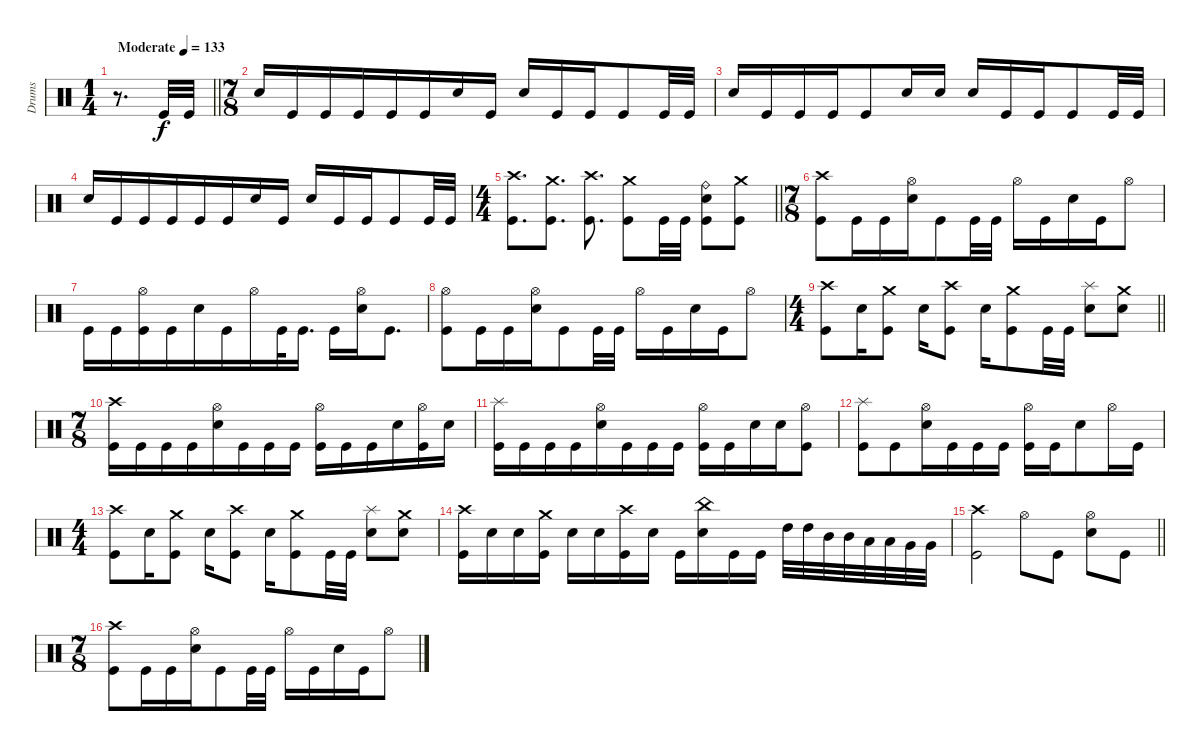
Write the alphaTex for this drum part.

\track ("Drums" "Drums") {instrument percussion}
\staff
\articulation defaults
\ts (1 4)
\tempo (133 "Moderate")
\clef neutral
\barLineRight lightlight
\ks c
r.8{d dy f} "Kick (hit)".32 "Kick (hit)".32 |
\ts (7 8)
"Electric Snare (hit)".16 "Kick (hit)".16 "Kick (hit)".16 "Kick (hit)".16 "Kick (hit)".16 "Kick (hit)".16 "Electric Snare (hit)".16 "Kick (hit)".16 "Electric Snare (hit)".16 "Kick (hit)".16 "Kick (hit)".16 "Kick (hit)".8 "Kick (hit)".32 "Kick (hit)".32 |
"Electric Snare (hit)".16 "Kick (hit)".16 "Kick (hit)".16 "Kick (hit)".16 "Kick (hit)".8 "Electric Snare (hit)".16 "Electric Snare (hit)".16 "Electric Snare (hit)".16 "Kick (hit)".16 "Kick (hit)".16 "Kick (hit)".8 "Kick (hit)".32 "Kick (hit)".32 |
"Electric Snare (hit)".16 "Kick (hit)".16 "Kick (hit)".16 "Kick (hit)".16 "Kick (hit)".16 "Kick (hit)".16 "Electric Snare (hit)".16 "Kick (hit)".16 "Electric Snare (hit)".16 "Kick (hit)".16 "Kick (hit)".16 "Kick (hit)".8 "Kick (hit)".32 "Kick (hit)".32 |
\ts (4 4)
\barLineRight lightlight
("Crash high (hit)" "Kick (hit)").8{d} ("Crash medium (hit)" "Kick (hit)").8{d} ("Crash high (hit)" "Kick (hit)").8{d} ("Crash medium (hit)" "Kick (hit)").8 "Kick (hit)".32 "Kick (hit)".32 ("Ride (bell)" "Electric Snare (hit)" "Kick (hit)").8 ("Crash medium (hit)" "Kick (hit)").8 |
\ts (7 8)
("Crash high (hit)" "Kick (hit)").8 "Kick (hit)".16 "Kick (hit)".16 ("Hi-Hat (open)" "Electric Snare (hit)").16 "Kick (hit)".8 "Kick (hit)".32 "Kick (hit)".32 "Hi-Hat (open)".16 "Kick (hit)".16 "Electric Snare (hit)".16 "Kick (hit)".16 "Hi-Hat (open)".8 |
"Kick (hit)".16 "Kick (hit)".16 ("Hi-Hat (open)" "Kick (hit)").16 "Kick (hit)".16 "Electric Snare (hit)".16 "Kick (hit)".16 "Hi-Hat (open)".16 "Kick (hit)".32 "Kick (hit)".16{d} "Kick (hit)".16 ("Hi-Hat (open)" "Electric Snare (hit)").16 "Kick (hit)".8{d} |
("Hi-Hat (open)" "Kick (hit)").8 "Kick (hit)".16 "Kick (hit)".16 ("Hi-Hat (open)" "Electric Snare (hit)").16 "Kick (hit)".8 "Kick (hit)".32 "Kick (hit)".32 "Hi-Hat (open)".16 "Kick (hit)".16 "Electric Snare (hit)".16 "Kick (hit)".16 "Hi-Hat (open)".8 |
\ts (4 4)
\barLineRight lightlight
("Crash high (hit)" "Kick (hit)").8 "Electric Snare (hit)".16 ("Crash medium (hit)" "Kick (hit)").8 "Electric Snare (hit)".16 ("Crash high (hit)" "Kick (hit)").8 "Electric Snare (hit)".16 ("Crash medium (hit)" "Kick (hit)").8 "Kick (hit)".32 "Kick (hit)".32 ("Splash (hit)" "Electric Snare (hit)").8 ("Crash medium (hit)" "Electric Snare (hit)").8 |
\ts (7 8)
("Crash high (hit)" "Kick (hit)").16 "Kick (hit)".16 "Kick (hit)".16 "Kick (hit)".16 ("Hi-Hat (open)" "Electric Snare (hit)").16 "Kick (hit)".16 "Kick (hit)".16 "Kick (hit)".16 ("Hi-Hat (open)" "Kick (hit)").16 "Kick (hit)".16 "Kick (hit)".16 "Electric Snare (hit)".16 ("Hi-Hat (open)" "Kick (hit)").16 "Electric Snare (hit)".16 |
("Splash (hit)" "Kick (hit)").16 "Kick (hit)".16 "Kick (hit)".16 "Kick (hit)".16 ("Hi-Hat (open)" "Electric Snare (hit)").16 "Kick (hit)".16 "Kick (hit)".16 "Kick (hit)".16 ("Hi-Hat (open)" "Kick (hit)").16 "Kick (hit)".16 "Electric Snare (hit)".16 "Electric Snare (hit)".16 ("Hi-Hat (open)" "Kick (hit)").8 |
("Splash (hit)" "Kick (hit)").8 "Kick (hit)".8 ("Hi-Hat (open)" "Electric Snare (hit)").16 "Kick (hit)".16 "Kick (hit)".16 "Kick (hit)".16 ("Hi-Hat (open)" "Kick (hit)").16 "Kick (hit)".16 "Electric Snare (hit)".8 "Hi-Hat (open)".16 "Kick (hit)".16 |
\ts (4 4)
("Crash high (hit)" "Kick (hit)").8 "Electric Snare (hit)".16 ("Crash medium (hit)" "Kick (hit)").8 "Electric Snare (hit)".16 ("Crash high (hit)" "Kick (hit)").8 "Electric Snare (hit)".16 ("Crash medium (hit)" "Kick (hit)").8 "Kick (hit)".32 "Kick (hit)".32 ("Splash (hit)" "Electric Snare (hit)").8 ("Crash medium (hit)" "Electric Snare (hit)").8 |
("Crash high (hit)" "Kick (hit)").16 "Electric Snare (hit)".16 "Electric Snare (hit)".16 ("Crash medium (hit)" "Kick (hit)").16 "Electric Snare (hit)".16 "Electric Snare (hit)".16 ("Crash high (hit)" "Kick (hit)").16 "Electric Snare (hit)".16 "Kick (hit)".16 ("China (hit)" "Electric Snare (hit)").16 "Kick (hit)".16 "Kick (hit)".16 "High Tom (hit)".32 "High Tom (hit)".32 "Mid Tom (hit)".32 "Mid Tom (hit)".32 "Low Tom (hit)".32 "Low Tom (hit)".32 "Very Low Tom (hit)".32 "Very Low Tom (hit)".32 |
\barLineRight lightlight
("Crash high (hit)" "Kick (hit)").2 "Hi-Hat (open)".8 "Kick (hit)".8 ("Hi-Hat (open)" "Electric Snare (hit)").8 "Kick (hit)".8 |
\ts (7 8)
("Crash high (hit)" "Kick (hit)").8 "Kick (hit)".16 "Kick (hit)".16 ("Hi-Hat (open)" "Electric Snare (hit)").16 "Kick (hit)".8 "Kick (hit)".32 "Kick (hit)".32 "Hi-Hat (open)".16 "Kick (hit)".16 "Electric Snare (hit)".16 "Kick (hit)".16 "Hi-Hat (open)".8
